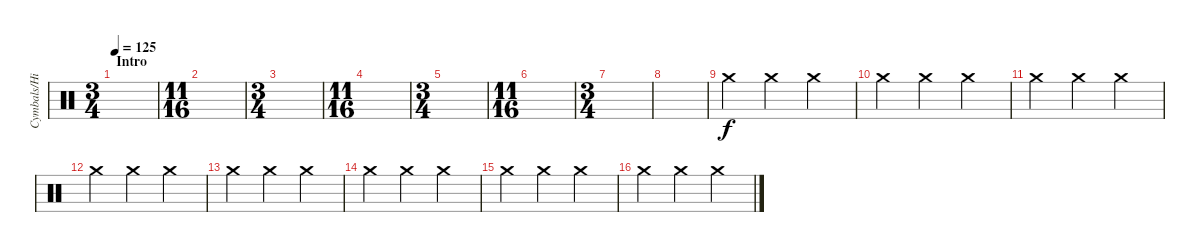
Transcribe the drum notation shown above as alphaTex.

\track ("Cymbals/Hi-hat" "Cymbals/Hi") {instrument percussion}
\staff {score}
\articulation defaults
\ts (3 4)
\section ("" "Intro")
\tempo 125
\clef neutral
\ks c
|
\ts (11 16)
|
\ts (3 4)
|
\ts (11 16)
|
\ts (3 4)
|
\ts (11 16)
|
\ts (3 4)
|
|
"Crash medium (hit)".4 "Crash medium (hit)".4 "Crash medium (hit)".4 |
"Crash medium (hit)".4 "Crash medium (hit)".4 "Crash medium (hit)".4 |
"Crash medium (hit)".4 "Crash medium (hit)".4 "Crash medium (hit)".4 |
"Crash medium (hit)".4 "Crash medium (hit)".4 "Crash medium (hit)".4 |
"Crash medium (hit)".4 "Crash medium (hit)".4 "Crash medium (hit)".4 |
"Crash medium (hit)".4 "Crash medium (hit)".4 "Crash medium (hit)".4 |
"Crash medium (hit)".4 "Crash medium (hit)".4 "Crash medium (hit)".4 |
"Crash medium (hit)".4 "Crash medium (hit)".4 "Crash medium (hit)".4
